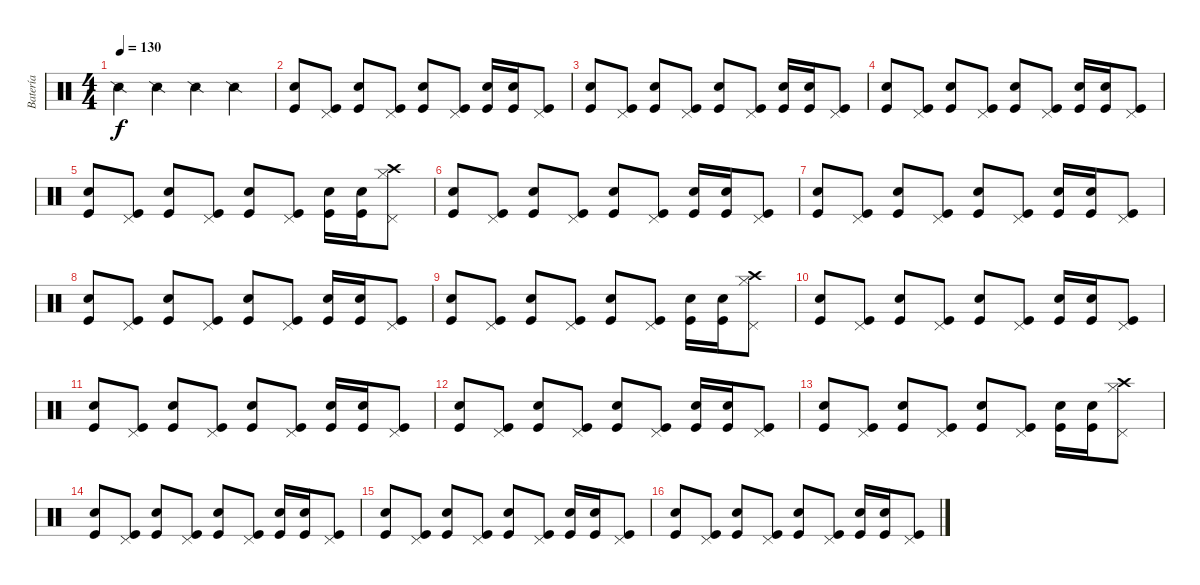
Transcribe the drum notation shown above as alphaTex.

\track ("Batería" "Batería") {instrument percussion}
\staff {score}
\articulation defaults
\ts (4 4)
\tempo 130
\clef neutral
\ks c "Snare (side stick) 2".4{dy f} "Snare (side stick) 2".4 "Snare (side stick) 2".4 "Snare (side stick) 2".4
|
("Kick (hit)" "Electric Snare (hit)").8 ("Kick (hit)" "Pedal Hi-Hat (hit)").8 ("Kick (hit)" "Electric Snare (hit)").8 ("Kick (hit)" "Pedal Hi-Hat (hit)").8 ("Kick (hit)" "Electric Snare (hit)").8 ("Kick (hit)" "Pedal Hi-Hat (hit)").8 ("Kick (hit)" "Electric Snare (hit)").16 ("Kick (hit)" "Electric Snare (hit)").16 ("Kick (hit)" "Pedal Hi-Hat (hit)").8 |
("Kick (hit)" "Electric Snare (hit)").8 ("Kick (hit)" "Pedal Hi-Hat (hit)").8 ("Kick (hit)" "Electric Snare (hit)").8 ("Kick (hit)" "Pedal Hi-Hat (hit)").8 ("Kick (hit)" "Electric Snare (hit)").8 ("Kick (hit)" "Pedal Hi-Hat (hit)").8 ("Kick (hit)" "Electric Snare (hit)").16 ("Kick (hit)" "Electric Snare (hit)").16 ("Kick (hit)" "Pedal Hi-Hat (hit)").8 |
("Kick (hit)" "Electric Snare (hit)").8 ("Kick (hit)" "Pedal Hi-Hat (hit)").8 ("Kick (hit)" "Electric Snare (hit)").8 ("Kick (hit)" "Pedal Hi-Hat (hit)").8 ("Kick (hit)" "Electric Snare (hit)").8 ("Kick (hit)" "Pedal Hi-Hat (hit)").8 ("Kick (hit)" "Electric Snare (hit)").16 ("Kick (hit)" "Electric Snare (hit)").16 ("Kick (hit)" "Pedal Hi-Hat (hit)").8 |
("Kick (hit)" "Electric Snare (hit)").8 ("Kick (hit)" "Pedal Hi-Hat (hit)").8 ("Kick (hit)" "Electric Snare (hit)").8 ("Kick (hit)" "Pedal Hi-Hat (hit)").8 ("Kick (hit)" "Electric Snare (hit)").8 ("Kick (hit)" "Pedal Hi-Hat (hit)").8 ("Kick (hit)" "Electric Snare (hit)").16 ("Kick (hit)" "Electric Snare (hit)").16 ("Crash high (hit)" "Hi-Hat (closed)" "Pedal Hi-Hat (hit)").8 |
("Kick (hit)" "Electric Snare (hit)").8 ("Kick (hit)" "Pedal Hi-Hat (hit)").8 ("Kick (hit)" "Electric Snare (hit)").8 ("Kick (hit)" "Pedal Hi-Hat (hit)").8 ("Kick (hit)" "Electric Snare (hit)").8 ("Kick (hit)" "Pedal Hi-Hat (hit)").8 ("Kick (hit)" "Electric Snare (hit)").16 ("Kick (hit)" "Electric Snare (hit)").16 ("Kick (hit)" "Pedal Hi-Hat (hit)").8 |
("Kick (hit)" "Electric Snare (hit)").8 ("Kick (hit)" "Pedal Hi-Hat (hit)").8 ("Kick (hit)" "Electric Snare (hit)").8 ("Kick (hit)" "Pedal Hi-Hat (hit)").8 ("Kick (hit)" "Electric Snare (hit)").8 ("Kick (hit)" "Pedal Hi-Hat (hit)").8 ("Kick (hit)" "Electric Snare (hit)").16 ("Kick (hit)" "Electric Snare (hit)").16 ("Kick (hit)" "Pedal Hi-Hat (hit)").8 |
("Kick (hit)" "Electric Snare (hit)").8 ("Kick (hit)" "Pedal Hi-Hat (hit)").8 ("Kick (hit)" "Electric Snare (hit)").8 ("Kick (hit)" "Pedal Hi-Hat (hit)").8 ("Kick (hit)" "Electric Snare (hit)").8 ("Kick (hit)" "Pedal Hi-Hat (hit)").8 ("Kick (hit)" "Electric Snare (hit)").16 ("Kick (hit)" "Electric Snare (hit)").16 ("Kick (hit)" "Pedal Hi-Hat (hit)").8 |
("Kick (hit)" "Electric Snare (hit)").8 ("Kick (hit)" "Pedal Hi-Hat (hit)").8 ("Kick (hit)" "Electric Snare (hit)").8 ("Kick (hit)" "Pedal Hi-Hat (hit)").8 ("Kick (hit)" "Electric Snare (hit)").8 ("Kick (hit)" "Pedal Hi-Hat (hit)").8 ("Kick (hit)" "Electric Snare (hit)").16 ("Kick (hit)" "Electric Snare (hit)").16 ("Crash high (hit)" "Hi-Hat (closed)" "Pedal Hi-Hat (hit)").8 |
("Kick (hit)" "Electric Snare (hit)").8 ("Kick (hit)" "Pedal Hi-Hat (hit)").8 ("Kick (hit)" "Electric Snare (hit)").8 ("Kick (hit)" "Pedal Hi-Hat (hit)").8 ("Kick (hit)" "Electric Snare (hit)").8 ("Kick (hit)" "Pedal Hi-Hat (hit)").8 ("Kick (hit)" "Electric Snare (hit)").16 ("Kick (hit)" "Electric Snare (hit)").16 ("Kick (hit)" "Pedal Hi-Hat (hit)").8 |
("Kick (hit)" "Electric Snare (hit)").8 ("Kick (hit)" "Pedal Hi-Hat (hit)").8 ("Kick (hit)" "Electric Snare (hit)").8 ("Kick (hit)" "Pedal Hi-Hat (hit)").8 ("Kick (hit)" "Electric Snare (hit)").8 ("Kick (hit)" "Pedal Hi-Hat (hit)").8 ("Kick (hit)" "Electric Snare (hit)").16 ("Kick (hit)" "Electric Snare (hit)").16 ("Kick (hit)" "Pedal Hi-Hat (hit)").8 |
("Kick (hit)" "Electric Snare (hit)").8 ("Kick (hit)" "Pedal Hi-Hat (hit)").8 ("Kick (hit)" "Electric Snare (hit)").8 ("Kick (hit)" "Pedal Hi-Hat (hit)").8 ("Kick (hit)" "Electric Snare (hit)").8 ("Kick (hit)" "Pedal Hi-Hat (hit)").8 ("Kick (hit)" "Electric Snare (hit)").16 ("Kick (hit)" "Electric Snare (hit)").16 ("Kick (hit)" "Pedal Hi-Hat (hit)").8 |
("Kick (hit)" "Electric Snare (hit)").8 ("Kick (hit)" "Pedal Hi-Hat (hit)").8 ("Kick (hit)" "Electric Snare (hit)").8 ("Kick (hit)" "Pedal Hi-Hat (hit)").8 ("Kick (hit)" "Electric Snare (hit)").8 ("Kick (hit)" "Pedal Hi-Hat (hit)").8 ("Kick (hit)" "Electric Snare (hit)").16 ("Kick (hit)" "Electric Snare (hit)").16 ("Crash high (hit)" "Hi-Hat (closed)" "Pedal Hi-Hat (hit)").8 |
("Kick (hit)" "Electric Snare (hit)").8 ("Kick (hit)" "Pedal Hi-Hat (hit)").8 ("Kick (hit)" "Electric Snare (hit)").8 ("Kick (hit)" "Pedal Hi-Hat (hit)").8 ("Kick (hit)" "Electric Snare (hit)").8 ("Kick (hit)" "Pedal Hi-Hat (hit)").8 ("Kick (hit)" "Electric Snare (hit)").16 ("Kick (hit)" "Electric Snare (hit)").16 ("Kick (hit)" "Pedal Hi-Hat (hit)").8 |
("Kick (hit)" "Electric Snare (hit)").8 ("Kick (hit)" "Pedal Hi-Hat (hit)").8 ("Kick (hit)" "Electric Snare (hit)").8 ("Kick (hit)" "Pedal Hi-Hat (hit)").8 ("Kick (hit)" "Electric Snare (hit)").8 ("Kick (hit)" "Pedal Hi-Hat (hit)").8 ("Kick (hit)" "Electric Snare (hit)").16 ("Kick (hit)" "Electric Snare (hit)").16 ("Kick (hit)" "Pedal Hi-Hat (hit)").8 |
("Kick (hit)" "Electric Snare (hit)").8 ("Kick (hit)" "Pedal Hi-Hat (hit)").8 ("Kick (hit)" "Electric Snare (hit)").8 ("Kick (hit)" "Pedal Hi-Hat (hit)").8 ("Kick (hit)" "Electric Snare (hit)").8 ("Kick (hit)" "Pedal Hi-Hat (hit)").8 ("Kick (hit)" "Electric Snare (hit)").16 ("Kick (hit)" "Electric Snare (hit)").16 ("Kick (hit)" "Pedal Hi-Hat (hit)").8
